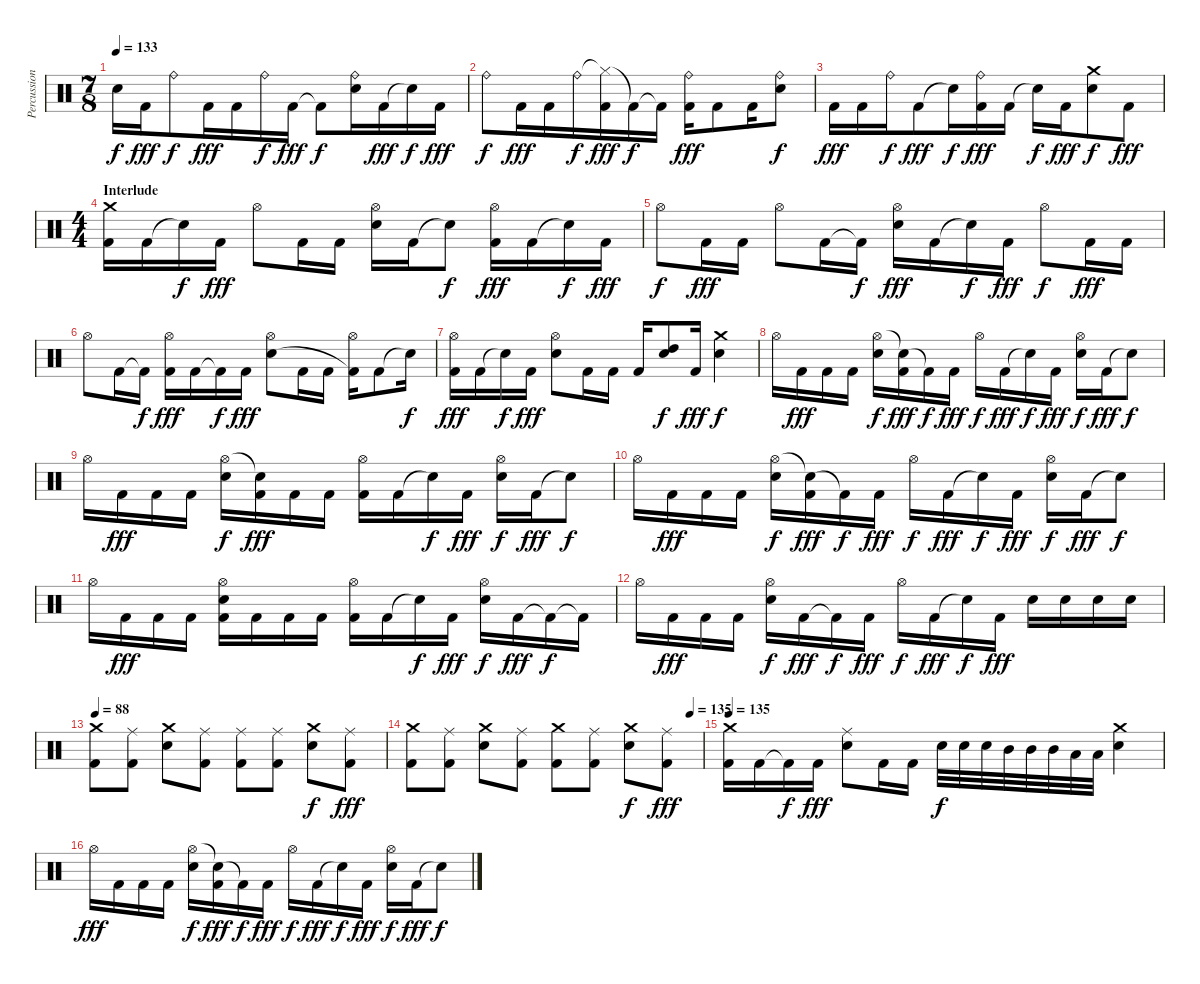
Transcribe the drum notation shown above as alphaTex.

\track ("Percussion" "Percussion") {instrument percussion}
\staff {score}
\articulation defaults
\ts (7 8)
\tempo 133
\clef neutral
\ks c "Snare (hit)"{t}.16{dy f} "Kick (hit) 2".16{dy fff} "Ride (bell)".8{dy f} "Kick (hit) 2".16{dy fff} "Kick (hit) 2".16 "Ride (bell)".16{dy f} "Kick (hit) 2".16{dy fff} "Kick (hit) 2"{t}.8{dy f}
("Ride (bell)" "Electric Snare (hit)").16 "Kick (hit) 2".16{dy fff} "Snare (hit)"{t}.16{dy f} "Kick (hit) 2".16{dy fff} |
"Ride (bell)".8{dy f} "Kick (hit) 2".16{dy fff} "Kick (hit) 2".16 "Ride (bell)".16{dy f} ("Hi-Hat (closed)"{t} "Kick (hit) 2").16{dy fff} "Kick (hit) 2"{t}.16{dy f} "Kick (hit) 2"{t}.16 ("Ride (bell)" "Kick (hit) 2").16{dy fff} "Kick (hit) 2".8 "Kick (hit) 2".16 ("Ride (bell)" "Electric Snare (hit)").8{dy f} |
"Kick (hit) 2".16{dy fff} "Kick (hit) 2".16 "Ride (bell)".16{dy f} "Kick (hit) 2".8{dy fff} "Snare (hit)"{t}.16{dy f} ("Ride (bell)" "Kick (hit) 2").16{dy fff} "Kick (hit) 2".16 "Snare (hit)"{t}.16{dy f} "Kick (hit) 2".16{dy fff} ("Crash medium (hit)" "Electric Snare (hit)").8{dy f} "Kick (hit) 2".8{dy fff} |
\ts (4 4)
\section ("" "Interlude")
("Crash medium (hit)" "Kick (hit) 2").16 "Kick (hit) 2".16 "Snare (hit)"{t}.16{dy f} "Kick (hit) 2".16{dy fff} "Hi-Hat (open)".8 "Kick (hit) 2".16 "Kick (hit) 2".16 ("Hi-Hat (open)" "Electric Snare (hit)").16 "Kick (hit) 2".16 "Snare (hit)"{t}.8{dy f} ("Hi-Hat (open)" "Kick (hit) 2").16{dy fff} "Kick (hit) 2".16 "Snare (hit)"{t}.16{dy f} "Kick (hit) 2".16{dy fff} |
"Hi-Hat (open)".8{dy f} "Kick (hit) 2".16{dy fff} "Kick (hit) 2".16 "Hi-Hat (open)".8 "Kick (hit) 2".16 "Kick (hit) 2"{t}.16{dy f} ("Hi-Hat (open)" "Electric Snare (hit)").16{dy fff} "Kick (hit) 2".16 "Snare (hit)"{t}.16{dy f} "Kick (hit) 2".16{dy fff} "Hi-Hat (open)".8{dy f} "Kick (hit) 2".16{dy fff} "Kick (hit) 2".16 |
"Hi-Hat (open)".8 "Kick (hit) 2".16 "Kick (hit) 2"{t}.16{dy f} ("Hi-Hat (open)" "Kick (hit) 2").16{dy fff} "Kick (hit) 2".16 "Kick (hit) 2"{t}.16{dy f} "Kick (hit) 2".16{dy fff} ("Hi-Hat (open)" "Electric Snare (hit)").8 "Kick (hit) 2".16 "Kick (hit) 2".16 ("Hi-Hat (open)" "Kick (hit) 2"{t}).16 "Kick (hit) 2".8 "Snare (hit)"{t}.16{dy f} |
("Hi-Hat (open)" "Kick (hit) 2").16{dy fff} "Kick (hit) 2".16 "Snare (hit)"{t}.16{dy f} "Kick (hit) 2".16{dy fff} ("Hi-Hat (open)" "Electric Snare (hit)").8 "Kick (hit) 2".16 "Kick (hit) 2".16 "Kick (hit) 2".16 ("High Tom (hit)" "Electric Snare (hit)").8{dy f} "Kick (hit) 2".16{dy fff} ("Crash medium (hit)" "Electric Snare (hit)").4{dy f} |
"Hi-Hat (open)".16 "Kick (hit) 2".16{dy fff} "Kick (hit) 2".16 "Kick (hit) 2".16 ("Hi-Hat (open)" "Electric Snare (hit)").16{dy f} ("Snare (hit)"{t} "Kick (hit) 2").16{dy fff} "Kick (hit) 2"{t}.16{dy f} "Kick (hit) 2".16{dy fff} "Hi-Hat (open)".16{dy f} "Kick (hit) 2".16{dy fff} "Snare (hit)"{t}.16{dy f} "Kick (hit) 2".16{dy fff} ("Hi-Hat (open)" "Electric Snare (hit)").16{dy f} "Kick (hit) 2".16{dy fff} "Snare (hit)"{t}.8{dy f} |
"Hi-Hat (open)".16 "Kick (hit) 2".16{dy fff} "Kick (hit) 2".16 "Kick (hit) 2".16 ("Hi-Hat (open)" "Electric Snare (hit)").16{dy f} ("Snare (hit)"{t} "Kick (hit) 2").16{dy fff} "Kick (hit) 2".16 "Kick (hit) 2".16 ("Hi-Hat (open)" "Kick (hit) 2").16 "Kick (hit) 2".16 "Snare (hit)"{t}.16{dy f} "Kick (hit) 2".16{dy fff} ("Hi-Hat (open)" "Electric Snare (hit)").16{dy f} "Kick (hit) 2".16{dy fff} "Snare (hit)"{t}.8{dy f} |
"Hi-Hat (open)".16 "Kick (hit) 2".16{dy fff} "Kick (hit) 2".16 "Kick (hit) 2".16 ("Hi-Hat (open)" "Electric Snare (hit)").16{dy f} ("Snare (hit)"{t} "Kick (hit) 2").16{dy fff} "Kick (hit) 2"{t}.16{dy f} "Kick (hit) 2".16{dy fff} "Hi-Hat (open)".16{dy f} "Kick (hit) 2".16{dy fff} "Snare (hit)"{t}.16{dy f} "Kick (hit) 2".16{dy fff} ("Hi-Hat (open)" "Electric Snare (hit)").16{dy f} "Kick (hit) 2".16{dy fff} "Snare (hit)"{t}.8{dy f} |
"Hi-Hat (open)".16 "Kick (hit) 2".16{dy fff} "Kick (hit) 2".16 "Kick (hit) 2".16 ("Hi-Hat (open)" "Electric Snare (hit)" "Kick (hit) 2").16 "Kick (hit) 2".16 "Kick (hit) 2".16 "Kick (hit) 2".16 ("Hi-Hat (open)" "Kick (hit) 2").16 "Kick (hit) 2".16 "Snare (hit)"{t}.16{dy f} "Kick (hit) 2".16{dy fff} ("Hi-Hat (open)" "Electric Snare (hit)").16{dy f} "Kick (hit) 2".16{dy fff} "Kick (hit) 2"{t}.16{dy f} "Kick (hit) 2"{t}.16 |
"Hi-Hat (open)".16 "Kick (hit) 2".16{dy fff} "Kick (hit) 2".16 "Kick (hit) 2".16 ("Hi-Hat (open)" "Electric Snare (hit)").16{dy f} "Kick (hit) 2".16{dy fff} "Kick (hit) 2"{t}.16{dy f} "Kick (hit) 2".16{dy fff} "Hi-Hat (open)".16{dy f} "Kick (hit) 2".16{dy fff} "Snare (hit)"{t}.16{dy f} "Kick (hit) 2".16{dy fff} "Electric Snare (hit)".16 "Electric Snare (hit)".16 "Electric Snare (hit)".16 "Electric Snare (hit)".16 |
\tempo 88
("Crash medium (hit)" "Kick (hit) 2").8 ("Ride (middle)" "Kick (hit) 2").8 ("Crash medium (hit)" "Electric Snare (hit)").8 ("Ride (middle)" "Kick (hit) 2").8 ("Ride (middle)" "Kick (hit) 2").8 ("Ride (middle)" "Kick (hit) 2").8 ("Crash medium (hit)" "Electric Snare (hit)").8{dy f} ("Ride (middle)" "Kick (hit) 2").8{dy fff} |
\tempo (135 0.9583333333333334)
("Crash medium (hit)" "Kick (hit) 2").8 ("Ride (middle)" "Kick (hit) 2").8 ("Crash medium (hit)" "Electric Snare (hit)").8 ("Ride (middle)" "Kick (hit) 2").8 ("Crash medium (hit)" "Kick (hit) 2").8 ("Ride (middle)" "Kick (hit) 2").8 ("Crash medium (hit)" "Electric Snare (hit)").8{dy f} ("Ride (middle)" "Kick (hit) 2").8{dy fff} |
\tempo 135
("Crash medium (hit)" "Kick (hit) 2").16 "Kick (hit) 2".16 "Kick (hit) 2"{t}.16{dy f} "Kick (hit) 2".16{dy fff} ("Ride (middle)" "Electric Snare (hit)").8 "Kick (hit) 2".16 "Kick (hit) 2".16 "Electric Snare (hit)".32{dy f} "Electric Snare (hit)".32 "Electric Snare (hit)".32 "Mid Tom (hit)".32 "Mid Tom (hit)".32 "Mid Tom (hit)".32 "Low Tom (hit)".32 "Low Tom (hit)".32 ("Crash medium (hit)" "Electric Snare (hit)").4 |
"Hi-Hat (open)".16{dy fff} "Kick (hit) 2".16 "Kick (hit) 2".16 "Kick (hit) 2".16 ("Hi-Hat (open)" "Electric Snare (hit)").16{dy f} ("Snare (hit)"{t} "Kick (hit) 2").16{dy fff} "Kick (hit) 2"{t}.16{dy f} "Kick (hit) 2".16{dy fff} "Hi-Hat (open)".16{dy f} "Kick (hit) 2".16{dy fff} "Snare (hit)"{t}.16{dy f} "Kick (hit) 2".16{dy fff} ("Hi-Hat (open)" "Electric Snare (hit)").16{dy f} "Kick (hit) 2".16{dy fff} "Snare (hit)"{t}.8{dy f}
